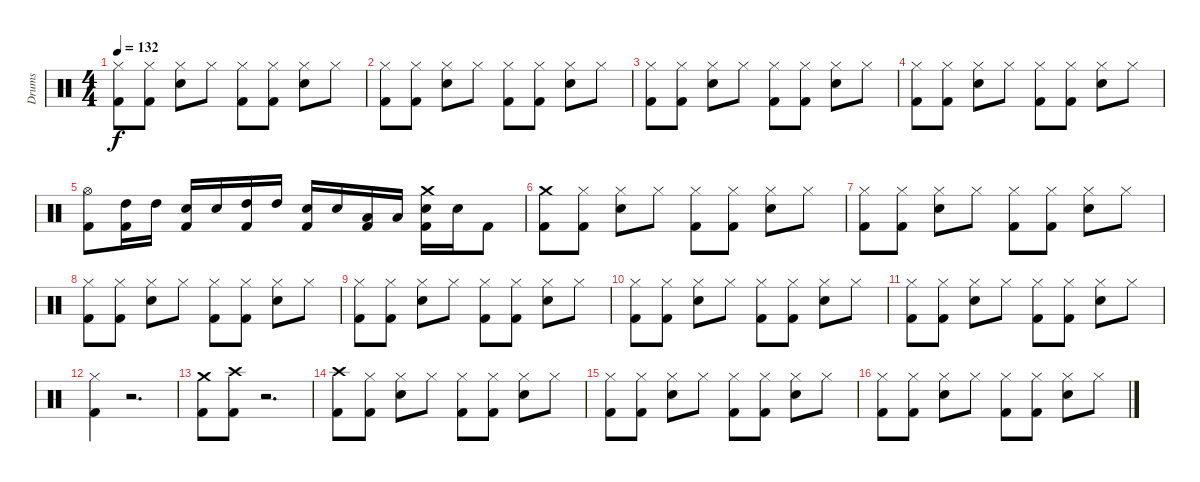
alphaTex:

\track ("Drums" "Drums") {instrument percussion}
\staff {score}
\articulation defaults
\ts (4 4)
\tempo 132
\clef neutral
\ks c
("Kick (hit) 2" "Hi-Hat (closed)").8{dy f} ("Kick (hit) 2" "Hi-Hat (closed)").8 ("Snare (hit) 2" "Hi-Hat (closed)").8 "Hi-Hat (closed)".8 ("Kick (hit) 2" "Hi-Hat (closed)").8 ("Kick (hit) 2" "Hi-Hat (closed)").8 ("Snare (hit) 2" "Hi-Hat (closed)").8 "Hi-Hat (closed)".8 |
("Kick (hit) 2" "Hi-Hat (closed)").8 ("Kick (hit) 2" "Hi-Hat (closed)").8 ("Snare (hit) 2" "Hi-Hat (closed)").8 "Hi-Hat (closed)".8 ("Kick (hit) 2" "Hi-Hat (closed)").8 ("Kick (hit) 2" "Hi-Hat (closed)").8 ("Snare (hit) 2" "Hi-Hat (closed)").8 "Hi-Hat (closed)".8 |
("Kick (hit) 2" "Hi-Hat (closed)").8 ("Kick (hit) 2" "Hi-Hat (closed)").8 ("Snare (hit) 2" "Hi-Hat (closed)").8 "Hi-Hat (closed)".8 ("Kick (hit) 2" "Hi-Hat (closed)").8 ("Kick (hit) 2" "Hi-Hat (closed)").8 ("Snare (hit) 2" "Hi-Hat (closed)").8 "Hi-Hat (closed)".8 |
("Kick (hit) 2" "Hi-Hat (closed)").8 ("Kick (hit) 2" "Hi-Hat (closed)").8 ("Snare (hit) 2" "Hi-Hat (closed)").8 "Hi-Hat (closed)".8 ("Kick (hit) 2" "Hi-Hat (closed)").8 ("Kick (hit) 2" "Hi-Hat (closed)").8 ("Snare (hit) 2" "Hi-Hat (closed)").8 "Hi-Hat (closed)".8 |
("Kick (hit) 2" "Hi-Hat (open)").8 ("Kick (hit) 2" "High Tom (hit)").16 "High Tom (hit)".16 ("Kick (hit) 2" "Snare (hit) 2").16 "Snare (hit) 2".16 ("Kick (hit) 2" "High Tom (hit)").16 "High Tom (hit)".16 ("Kick (hit) 2" "Snare (hit) 2").16 "Snare (hit) 2".16 ("Kick (hit) 2" "Low Tom (hit)").16 "Low Tom (hit)".16 ("Kick (hit) 2" "Snare (hit) 2" "Crash medium (hit)").16 "Snare (hit) 2".16 "Kick (hit) 2".8 |
("Kick (hit) 2" "Crash medium (hit)").8 ("Kick (hit) 2" "Hi-Hat (closed)").8 ("Snare (hit) 2" "Hi-Hat (closed)").8 "Hi-Hat (closed)".8 ("Kick (hit) 2" "Hi-Hat (closed)").8 ("Kick (hit) 2" "Hi-Hat (closed)").8 ("Snare (hit) 2" "Hi-Hat (closed)").8 "Hi-Hat (closed)".8 |
("Kick (hit) 2" "Hi-Hat (closed)").8 ("Kick (hit) 2" "Hi-Hat (closed)").8 ("Snare (hit) 2" "Hi-Hat (closed)").8 "Hi-Hat (closed)".8 ("Kick (hit) 2" "Hi-Hat (closed)").8 ("Kick (hit) 2" "Hi-Hat (closed)").8 ("Snare (hit) 2" "Hi-Hat (closed)").8 "Hi-Hat (closed)".8 |
("Kick (hit) 2" "Hi-Hat (closed)").8 ("Kick (hit) 2" "Hi-Hat (closed)").8 ("Snare (hit) 2" "Hi-Hat (closed)").8 "Hi-Hat (closed)".8 ("Kick (hit) 2" "Hi-Hat (closed)").8 ("Kick (hit) 2" "Hi-Hat (closed)").8 ("Snare (hit) 2" "Hi-Hat (closed)").8 "Hi-Hat (closed)".8 |
("Kick (hit) 2" "Hi-Hat (closed)").8 ("Kick (hit) 2" "Hi-Hat (closed)").8 ("Snare (hit) 2" "Hi-Hat (closed)").8 "Hi-Hat (closed)".8 ("Kick (hit) 2" "Hi-Hat (closed)").8 ("Kick (hit) 2" "Hi-Hat (closed)").8 ("Snare (hit) 2" "Hi-Hat (closed)").8 "Hi-Hat (closed)".8 |
("Kick (hit) 2" "Hi-Hat (closed)").8 ("Kick (hit) 2" "Hi-Hat (closed)").8 ("Snare (hit) 2" "Hi-Hat (closed)").8 "Hi-Hat (closed)".8 ("Kick (hit) 2" "Hi-Hat (closed)").8 ("Kick (hit) 2" "Hi-Hat (closed)").8 ("Snare (hit) 2" "Hi-Hat (closed)").8 "Hi-Hat (closed)".8 |
("Kick (hit) 2" "Hi-Hat (closed)").8 ("Kick (hit) 2" "Hi-Hat (closed)").8 ("Snare (hit) 2" "Hi-Hat (closed)").8 "Hi-Hat (closed)".8 ("Kick (hit) 2" "Hi-Hat (closed)").8 ("Kick (hit) 2" "Hi-Hat (closed)").8 ("Snare (hit) 2" "Hi-Hat (closed)").8 "Hi-Hat (closed)".8 |
("Kick (hit) 2" "Hi-Hat (closed)").4 r.2{d} |
("Kick (hit) 2" "Crash medium (hit)").8 ("Kick (hit) 2" "Crash high (hit)").8 r.2{d} |
("Kick (hit) 2" "Crash high (hit)").8 ("Kick (hit) 2" "Hi-Hat (closed)").8 ("Snare (hit) 2" "Hi-Hat (closed)").8 "Hi-Hat (closed)".8 ("Kick (hit) 2" "Hi-Hat (closed)").8 ("Kick (hit) 2" "Hi-Hat (closed)").8 ("Snare (hit) 2" "Hi-Hat (closed)").8 "Hi-Hat (closed)".8 |
("Kick (hit) 2" "Hi-Hat (closed)").8 ("Kick (hit) 2" "Hi-Hat (closed)").8 ("Snare (hit) 2" "Hi-Hat (closed)").8 "Hi-Hat (closed)".8 ("Kick (hit) 2" "Hi-Hat (closed)").8 ("Kick (hit) 2" "Hi-Hat (closed)").8 ("Snare (hit) 2" "Hi-Hat (closed)").8 "Hi-Hat (closed)".8 |
("Kick (hit) 2" "Hi-Hat (closed)").8 ("Kick (hit) 2" "Hi-Hat (closed)").8 ("Snare (hit) 2" "Hi-Hat (closed)").8 "Hi-Hat (closed)".8 ("Kick (hit) 2" "Hi-Hat (closed)").8 ("Kick (hit) 2" "Hi-Hat (closed)").8 ("Snare (hit) 2" "Hi-Hat (closed)").8 "Hi-Hat (closed)".8
